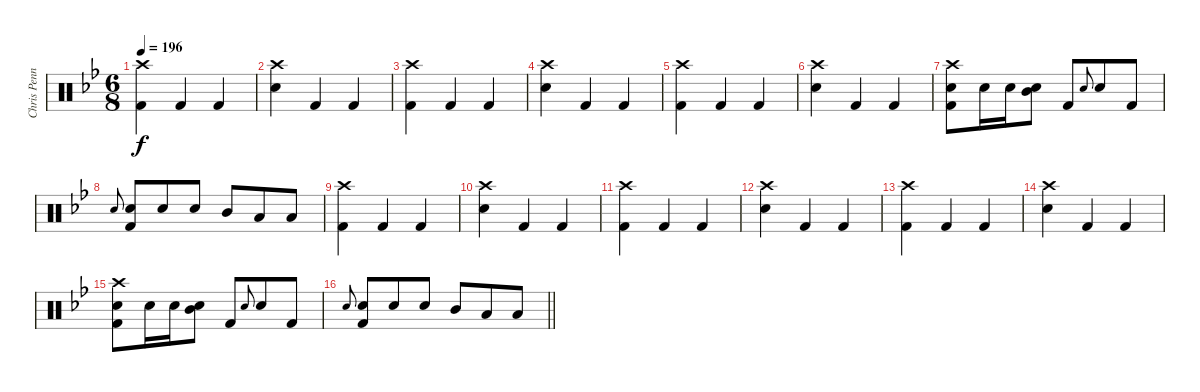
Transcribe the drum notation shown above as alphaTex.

\track ("Chris Pennie/Taylor Hawkins - Drum" "Chris Penn") {instrument percussion}
\staff {score}
\articulation defaults
\ts (6 8)
\tempo 196
\clef neutral
\ks bb
("Crash high (hit)" "Kick (hit) 2").4{dy f} "Kick (hit) 2".4 "Kick (hit) 2".4 |
("Crash high (hit)" "Electric Snare (hit)").4 "Kick (hit) 2".4 "Kick (hit) 2".4 |
("Crash high (hit)" "Kick (hit) 2").4 "Kick (hit) 2".4 "Kick (hit) 2".4 |
("Crash high (hit)" "Electric Snare (hit)").4 "Kick (hit) 2".4 "Kick (hit) 2".4 |
("Crash high (hit)" "Kick (hit) 2").4 "Kick (hit) 2".4 "Kick (hit) 2".4 |
("Crash high (hit)" "Electric Snare (hit)").4 "Kick (hit) 2".4 "Kick (hit) 2".4 |
("Crash high (hit)" "Electric Snare (hit)" "Kick (hit) 2").8 "Electric Snare (hit)".16 "Electric Snare (hit)".16 ("Electric Snare (hit)" "Mid Tom (hit)").8 "Kick (hit) 2".8 "Electric Snare (hit)".8{gr onbeat} "Electric Snare (hit)".8 "Kick (hit) 2".8 |
"Electric Snare (hit)".8{gr onbeat} ("Electric Snare (hit)" "Kick (hit) 2").8 "Electric Snare (hit)".8 "Electric Snare (hit)".8 "Mid Tom (hit)".8 "Low Tom (hit)".8 "Low Floor Tom (hit)".8 |
("Crash high (hit)" "Kick (hit) 2").4 "Kick (hit) 2".4 "Kick (hit) 2".4 |
("Crash high (hit)" "Electric Snare (hit)").4 "Kick (hit) 2".4 "Kick (hit) 2".4 |
("Crash high (hit)" "Kick (hit) 2").4 "Kick (hit) 2".4 "Kick (hit) 2".4 |
("Crash high (hit)" "Electric Snare (hit)").4 "Kick (hit) 2".4 "Kick (hit) 2".4 |
("Crash high (hit)" "Kick (hit) 2").4 "Kick (hit) 2".4 "Kick (hit) 2".4 |
("Crash high (hit)" "Electric Snare (hit)").4 "Kick (hit) 2".4 "Kick (hit) 2".4 |
("Crash high (hit)" "Electric Snare (hit)" "Kick (hit) 2").8 "Electric Snare (hit)".16 "Electric Snare (hit)".16 ("Electric Snare (hit)" "Mid Tom (hit)").8 "Kick (hit) 2".8 "Electric Snare (hit)".8{gr onbeat} "Electric Snare (hit)".8 "Kick (hit) 2".8 |
\barLineRight lightlight "Electric Snare (hit)".8{gr onbeat}
("Electric Snare (hit)" "Kick (hit) 2").8 "Electric Snare (hit)".8 "Electric Snare (hit)".8 "Mid Tom (hit)".8 "Low Tom (hit)".8 "Low Floor Tom (hit)".8
